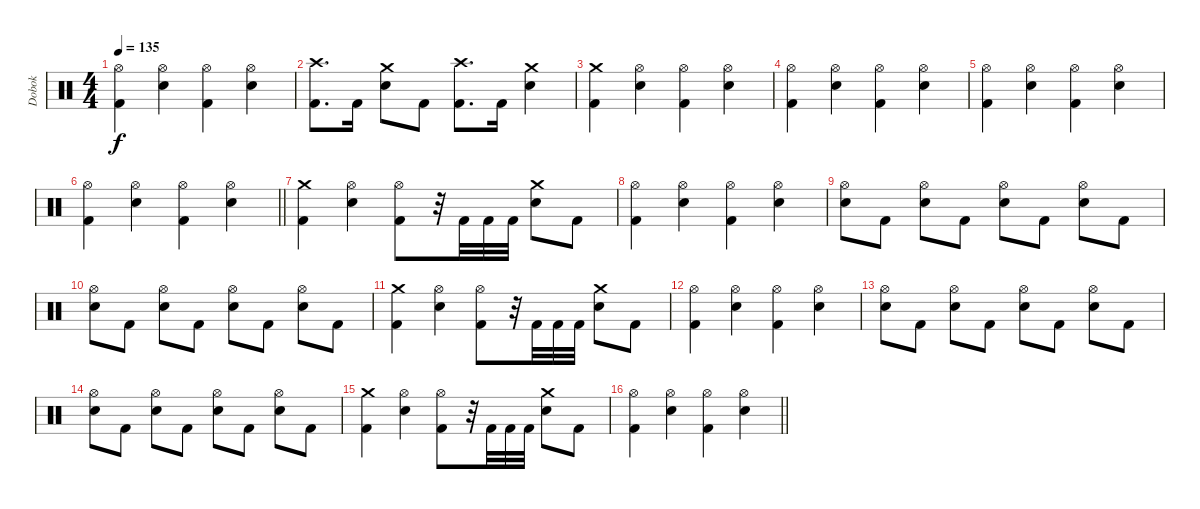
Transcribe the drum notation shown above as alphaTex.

\track ("Dobok" "Dobok") {instrument percussion}
\staff {score}
\articulation defaults
\ts (4 4)
\tempo 135
\clef neutral
\ks c
("Hi-Hat (open)" "Kick (hit) 2").4{dy f} ("Hi-Hat (open)" "Electric Snare (hit)").4 ("Hi-Hat (open)" "Kick (hit) 2").4 ("Hi-Hat (open)" "Electric Snare (hit)").4 |
("Crash high (hit)" "Kick (hit) 2").8{d} "Kick (hit) 2".16 ("Crash medium (hit)" "Electric Snare (hit)").8 "Kick (hit) 2".8 ("Crash high (hit)" "Kick (hit) 2").8{d} "Kick (hit) 2".16 ("Crash medium (hit)" "Electric Snare (hit)").4 |
("Crash medium (hit)" "Kick (hit) 2").4 ("Hi-Hat (open)" "Electric Snare (hit)").4 ("Hi-Hat (open)" "Kick (hit) 2").4 ("Hi-Hat (open)" "Electric Snare (hit)").4 |
("Hi-Hat (open)" "Kick (hit) 2").4 ("Hi-Hat (open)" "Electric Snare (hit)").4 ("Hi-Hat (open)" "Kick (hit) 2").4 ("Hi-Hat (open)" "Electric Snare (hit)").4 |
("Hi-Hat (open)" "Kick (hit) 2").4 ("Hi-Hat (open)" "Electric Snare (hit)").4 ("Hi-Hat (open)" "Kick (hit) 2").4 ("Hi-Hat (open)" "Electric Snare (hit)").4 |
\barLineRight lightlight
("Hi-Hat (open)" "Kick (hit) 2").4 ("Hi-Hat (open)" "Electric Snare (hit)").4 ("Hi-Hat (open)" "Kick (hit) 2").4 ("Hi-Hat (open)" "Electric Snare (hit)").4 |
("Crash medium (hit)" "Kick (hit) 2").4 ("Hi-Hat (open)" "Electric Snare (hit)").4 ("Hi-Hat (open)" "Kick (hit) 2").8 r.32 "Kick (hit) 2".32 "Kick (hit) 2".32 "Kick (hit) 2".32 ("Crash medium (hit)" "Electric Snare (hit)").8 "Kick (hit) 2".8 |
("Hi-Hat (open)" "Kick (hit) 2").4 ("Hi-Hat (open)" "Electric Snare (hit)").4 ("Hi-Hat (open)" "Kick (hit) 2").4 ("Hi-Hat (open)" "Electric Snare (hit)").4 |
("Hi-Hat (open)" "Electric Snare (hit)").8 "Kick (hit) 2".8 ("Hi-Hat (open)" "Electric Snare (hit)").8 "Kick (hit) 2".8 ("Hi-Hat (open)" "Electric Snare (hit)").8 "Kick (hit) 2".8 ("Hi-Hat (open)" "Electric Snare (hit)").8 "Kick (hit) 2".8 |
("Hi-Hat (open)" "Electric Snare (hit)").8 "Kick (hit) 2".8 ("Hi-Hat (open)" "Electric Snare (hit)").8 "Kick (hit) 2".8 ("Hi-Hat (open)" "Electric Snare (hit)").8 "Kick (hit) 2".8 ("Hi-Hat (open)" "Electric Snare (hit)").8 "Kick (hit) 2".8 |
("Crash medium (hit)" "Kick (hit) 2").4 ("Hi-Hat (open)" "Electric Snare (hit)").4 ("Hi-Hat (open)" "Kick (hit) 2").8 r.32 "Kick (hit) 2".32 "Kick (hit) 2".32 "Kick (hit) 2".32 ("Crash medium (hit)" "Electric Snare (hit)").8 "Kick (hit) 2".8 |
("Hi-Hat (open)" "Kick (hit) 2").4 ("Hi-Hat (open)" "Electric Snare (hit)").4 ("Hi-Hat (open)" "Kick (hit) 2").4 ("Hi-Hat (open)" "Electric Snare (hit)").4 |
("Hi-Hat (open)" "Electric Snare (hit)").8 "Kick (hit) 2".8 ("Hi-Hat (open)" "Electric Snare (hit)").8 "Kick (hit) 2".8 ("Hi-Hat (open)" "Electric Snare (hit)").8 "Kick (hit) 2".8 ("Hi-Hat (open)" "Electric Snare (hit)").8 "Kick (hit) 2".8 |
("Hi-Hat (open)" "Electric Snare (hit)").8 "Kick (hit) 2".8 ("Hi-Hat (open)" "Electric Snare (hit)").8 "Kick (hit) 2".8 ("Hi-Hat (open)" "Electric Snare (hit)").8 "Kick (hit) 2".8 ("Hi-Hat (open)" "Electric Snare (hit)").8 "Kick (hit) 2".8 |
("Crash medium (hit)" "Kick (hit) 2").4 ("Hi-Hat (open)" "Electric Snare (hit)").4 ("Hi-Hat (open)" "Kick (hit) 2").8 r.32 "Kick (hit) 2".32 "Kick (hit) 2".32 "Kick (hit) 2".32 ("Crash medium (hit)" "Electric Snare (hit)").8 "Kick (hit) 2".8 |
\barLineRight lightlight
("Hi-Hat (open)" "Kick (hit) 2").4 ("Hi-Hat (open)" "Electric Snare (hit)").4 ("Hi-Hat (open)" "Kick (hit) 2").4 ("Hi-Hat (open)" "Electric Snare (hit)").4
